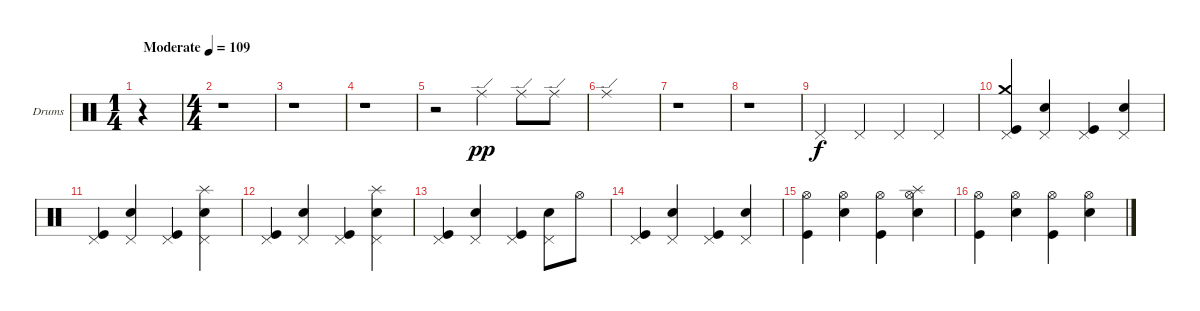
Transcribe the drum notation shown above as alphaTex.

\bracketExtendMode groupsimilarinstruments
\firstSystemTrackNameOrientation horizontal
\otherSystemsTrackNameOrientation horizontal
\track ("Drumkit" "Drums") {instrument percussion}
\staff {score}
\articulation defaults
\voice
\ts (1 4)
\beaming (8 2)
\tempo (109 "Moderate")
\clef neutral
\ks c
r.4{dy pp} |
\ts (4 4)
\beaming (8 2 2 2 2)
r.1 |
r.1 |
r.1 |
r.2 "Ride (edge)".4 "Ride (edge)".8 "Ride (edge)".8 |
"Ride (edge)".1 |
r.1 |
r.1 |
"Pedal Hi-Hat (hit)".4{dy f} "Pedal Hi-Hat (hit)".4 "Pedal Hi-Hat (hit)".4 "Pedal Hi-Hat (hit)".4 |
("Crash medium (hit)" "Pedal Hi-Hat (hit)" "Kick (hit)").4 ("Pedal Hi-Hat (hit)" "Snare (hit) 2").4 ("Pedal Hi-Hat (hit)" "Kick (hit)").4 ("Pedal Hi-Hat (hit)" "Snare (hit) 2").4 |
("Pedal Hi-Hat (hit)" "Kick (hit)").4 ("Pedal Hi-Hat (hit)" "Snare (hit) 2").4 ("Pedal Hi-Hat (hit)" "Kick (hit)").4 ("Splash (hit)" "Pedal Hi-Hat (hit)" "Snare (hit) 2").4 |
("Pedal Hi-Hat (hit)" "Kick (hit)").4 ("Pedal Hi-Hat (hit)" "Snare (hit) 2").4 ("Pedal Hi-Hat (hit)" "Kick (hit)").4 ("Splash (hit)" "Pedal Hi-Hat (hit)" "Snare (hit) 2").4 |
("Pedal Hi-Hat (hit)" "Kick (hit)").4 ("Pedal Hi-Hat (hit)" "Snare (hit) 2").4 ("Pedal Hi-Hat (hit)" "Kick (hit)").4 ("Pedal Hi-Hat (hit)" "Snare (hit) 2").8 "Hi-Hat (open)".8 |
("Pedal Hi-Hat (hit)" "Kick (hit)").4 ("Pedal Hi-Hat (hit)" "Snare (hit) 2").4 ("Pedal Hi-Hat (hit)" "Kick (hit)").4 ("Pedal Hi-Hat (hit)" "Snare (hit) 2").4 |
("Hi-Hat (open)" "Kick (hit)").4 ("Hi-Hat (open)" "Snare (hit) 2").4 ("Hi-Hat (open)" "Kick (hit)").4 ("Splash (hit)" "Hi-Hat (open)" "Snare (hit) 2").4 |
("Hi-Hat (open)" "Kick (hit)").4 ("Hi-Hat (open)" "Snare (hit) 2").4 ("Hi-Hat (open)" "Kick (hit)").4 ("Hi-Hat (open)" "Snare (hit) 2").4
\voice
\clef neutral
\ottava regular
\simile none
\ks c
r.4{dy mf} |
|
|
|
|
|
|
|
|
|
|
|
|
|
|
